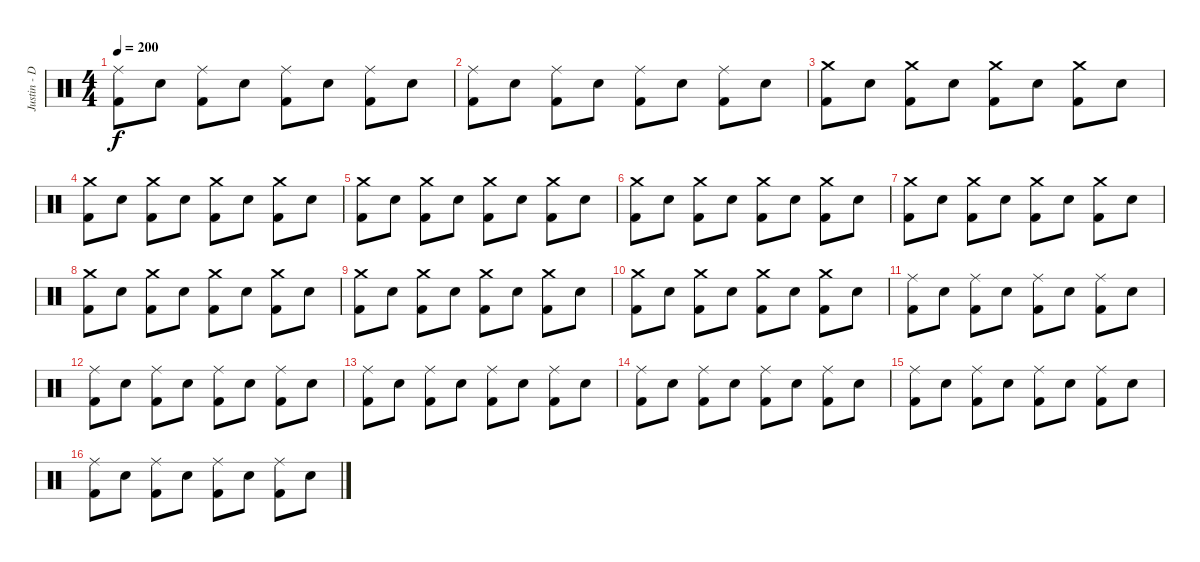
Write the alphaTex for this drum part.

\track ("Justin - Drums" "Justin - D") {instrument percussion}
\staff {score}
\articulation defaults
\ts (4 4)
\tempo 200
\clef neutral
\ks c
("Ride (middle)" "Kick (hit) 2").8{dy f} "Snare (hit) 2".8 ("Ride (middle)" "Kick (hit) 2").8 "Snare (hit) 2".8 ("Ride (middle)" "Kick (hit) 2").8 "Snare (hit) 2".8 ("Ride (middle)" "Kick (hit) 2").8 "Snare (hit) 2".8 |
("Ride (middle)" "Kick (hit) 2").8 "Snare (hit) 2".8 ("Ride (middle)" "Kick (hit) 2").8 "Snare (hit) 2".8 ("Ride (middle)" "Kick (hit) 2").8 "Snare (hit) 2".8 ("Ride (middle)" "Kick (hit) 2").8 "Snare (hit) 2".8 |
("Crash medium (hit)" "Kick (hit) 2").8 "Snare (hit) 2".8 ("Crash medium (hit)" "Kick (hit) 2").8 "Snare (hit) 2".8 ("Crash medium (hit)" "Kick (hit) 2").8 "Snare (hit) 2".8 ("Crash medium (hit)" "Kick (hit) 2").8 "Snare (hit) 2".8 |
("Crash medium (hit)" "Kick (hit) 2").8 "Snare (hit) 2".8 ("Crash medium (hit)" "Kick (hit) 2").8 "Snare (hit) 2".8 ("Crash medium (hit)" "Kick (hit) 2").8 "Snare (hit) 2".8 ("Crash medium (hit)" "Kick (hit) 2").8 "Snare (hit) 2".8 |
("Crash medium (hit)" "Kick (hit) 2").8 "Snare (hit) 2".8 ("Crash medium (hit)" "Kick (hit) 2").8 "Snare (hit) 2".8 ("Crash medium (hit)" "Kick (hit) 2").8 "Snare (hit) 2".8 ("Crash medium (hit)" "Kick (hit) 2").8 "Snare (hit) 2".8 |
("Crash medium (hit)" "Kick (hit) 2").8 "Snare (hit) 2".8 ("Crash medium (hit)" "Kick (hit) 2").8 "Snare (hit) 2".8 ("Crash medium (hit)" "Kick (hit) 2").8 "Snare (hit) 2".8 ("Crash medium (hit)" "Kick (hit) 2").8 "Snare (hit) 2".8 |
("Crash medium (hit)" "Kick (hit) 2").8 "Snare (hit) 2".8 ("Crash medium (hit)" "Kick (hit) 2").8 "Snare (hit) 2".8 ("Crash medium (hit)" "Kick (hit) 2").8 "Snare (hit) 2".8 ("Crash medium (hit)" "Kick (hit) 2").8 "Snare (hit) 2".8 |
("Crash medium (hit)" "Kick (hit) 2").8 "Snare (hit) 2".8 ("Crash medium (hit)" "Kick (hit) 2").8 "Snare (hit) 2".8 ("Crash medium (hit)" "Kick (hit) 2").8 "Snare (hit) 2".8 ("Crash medium (hit)" "Kick (hit) 2").8 "Snare (hit) 2".8 |
("Crash medium (hit)" "Kick (hit) 2").8 "Snare (hit) 2".8 ("Crash medium (hit)" "Kick (hit) 2").8 "Snare (hit) 2".8 ("Crash medium (hit)" "Kick (hit) 2").8 "Snare (hit) 2".8 ("Crash medium (hit)" "Kick (hit) 2").8 "Snare (hit) 2".8 |
("Crash medium (hit)" "Kick (hit) 2").8 "Snare (hit) 2".8 ("Crash medium (hit)" "Kick (hit) 2").8 "Snare (hit) 2".8 ("Crash medium (hit)" "Kick (hit) 2").8 "Snare (hit) 2".8 ("Crash medium (hit)" "Kick (hit) 2").8 "Snare (hit) 2".8 |
("Ride (middle)" "Kick (hit) 2").8 "Snare (hit) 2".8 ("Ride (middle)" "Kick (hit) 2").8 "Snare (hit) 2".8 ("Ride (middle)" "Kick (hit) 2").8 "Snare (hit) 2".8 ("Ride (middle)" "Kick (hit) 2").8 "Snare (hit) 2".8 |
("Ride (middle)" "Kick (hit) 2").8 "Snare (hit) 2".8 ("Ride (middle)" "Kick (hit) 2").8 "Snare (hit) 2".8 ("Ride (middle)" "Kick (hit) 2").8 "Snare (hit) 2".8 ("Ride (middle)" "Kick (hit) 2").8 "Snare (hit) 2".8 |
("Ride (middle)" "Kick (hit) 2").8 "Snare (hit) 2".8 ("Ride (middle)" "Kick (hit) 2").8 "Snare (hit) 2".8 ("Ride (middle)" "Kick (hit) 2").8 "Snare (hit) 2".8 ("Ride (middle)" "Kick (hit) 2").8 "Snare (hit) 2".8 |
("Ride (middle)" "Kick (hit) 2").8 "Snare (hit) 2".8 ("Ride (middle)" "Kick (hit) 2").8 "Snare (hit) 2".8 ("Ride (middle)" "Kick (hit) 2").8 "Snare (hit) 2".8 ("Ride (middle)" "Kick (hit) 2").8 "Snare (hit) 2".8 |
("Ride (middle)" "Kick (hit) 2").8 "Snare (hit) 2".8 ("Ride (middle)" "Kick (hit) 2").8 "Snare (hit) 2".8 ("Ride (middle)" "Kick (hit) 2").8 "Snare (hit) 2".8 ("Ride (middle)" "Kick (hit) 2").8 "Snare (hit) 2".8 |
("Ride (middle)" "Kick (hit) 2").8 "Snare (hit) 2".8 ("Ride (middle)" "Kick (hit) 2").8 "Snare (hit) 2".8 ("Ride (middle)" "Kick (hit) 2").8 "Snare (hit) 2".8 ("Ride (middle)" "Kick (hit) 2").8 "Snare (hit) 2".8
